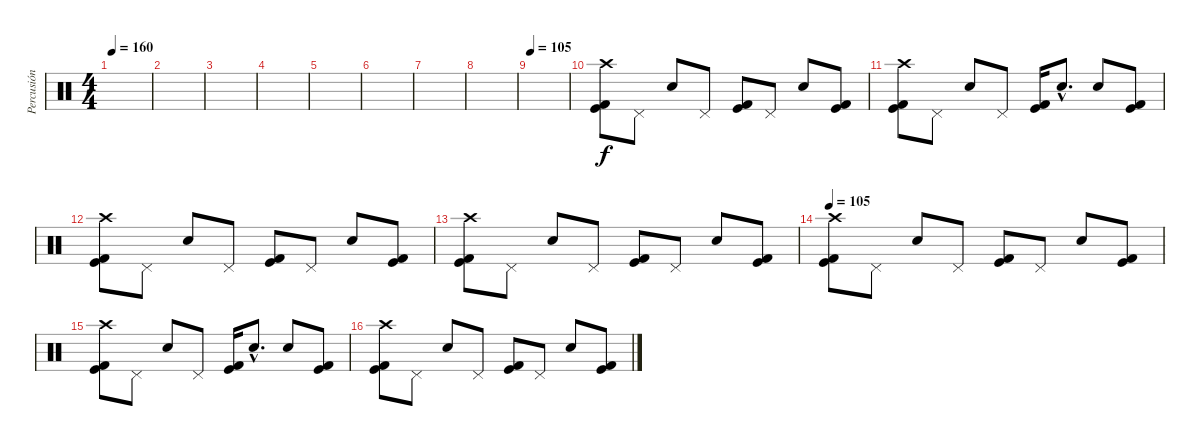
\track ("Percusión" "Percusión") {instrument percussion}
\staff {score}
\articulation defaults
\ts (4 4)
\tempo 160
\clef neutral
\ks c
|
|
|
|
|
|
|
|
\tempo 105
|
("Kick (hit) 2" "Kick (hit)" "Crash high (hit)").8 "Pedal Hi-Hat (hit)".8 "Electric Snare (hit)".8 "Pedal Hi-Hat (hit)".8 ("Kick (hit) 2" "Kick (hit)").8 "Pedal Hi-Hat (hit)".8 "Electric Snare (hit)".8 ("Kick (hit) 2" "Kick (hit)").8 |
("Kick (hit) 2" "Kick (hit)" "Crash high (hit)").8 "Pedal Hi-Hat (hit)".8 "Electric Snare (hit)".8 "Pedal Hi-Hat (hit)".8 ("Kick (hit) 2" "Kick (hit)").16 "Electric Snare (hit)"{hac}.8{d} "Electric Snare (hit)".8 ("Kick (hit) 2" "Kick (hit)").8 |
("Kick (hit) 2" "Kick (hit)" "Crash high (hit)").8 "Pedal Hi-Hat (hit)".8 "Electric Snare (hit)".8 "Pedal Hi-Hat (hit)".8 ("Kick (hit) 2" "Kick (hit)").8 "Pedal Hi-Hat (hit)".8 "Electric Snare (hit)".8 ("Kick (hit) 2" "Kick (hit)").8 |
("Kick (hit) 2" "Kick (hit)" "Crash high (hit)").8 "Pedal Hi-Hat (hit)".8 "Electric Snare (hit)".8 "Pedal Hi-Hat (hit)".8 ("Kick (hit) 2" "Kick (hit)").8 "Pedal Hi-Hat (hit)".8 "Electric Snare (hit)".8 ("Kick (hit) 2" "Kick (hit)").8 |
\tempo 105
("Kick (hit) 2" "Kick (hit)" "Crash high (hit)").8 "Pedal Hi-Hat (hit)".8 "Electric Snare (hit)".8 "Pedal Hi-Hat (hit)".8 ("Kick (hit) 2" "Kick (hit)").8 "Pedal Hi-Hat (hit)".8 "Electric Snare (hit)".8 ("Kick (hit) 2" "Kick (hit)").8 |
("Kick (hit) 2" "Kick (hit)" "Crash high (hit)").8 "Pedal Hi-Hat (hit)".8 "Electric Snare (hit)".8 "Pedal Hi-Hat (hit)".8 ("Kick (hit) 2" "Kick (hit)").16 "Electric Snare (hit)"{hac}.8{d} "Electric Snare (hit)".8 ("Kick (hit) 2" "Kick (hit)").8 |
("Kick (hit) 2" "Kick (hit)" "Crash high (hit)").8 "Pedal Hi-Hat (hit)".8 "Electric Snare (hit)".8 "Pedal Hi-Hat (hit)".8 ("Kick (hit) 2" "Kick (hit)").8 "Pedal Hi-Hat (hit)".8 "Electric Snare (hit)".8 ("Kick (hit) 2" "Kick (hit)").8
